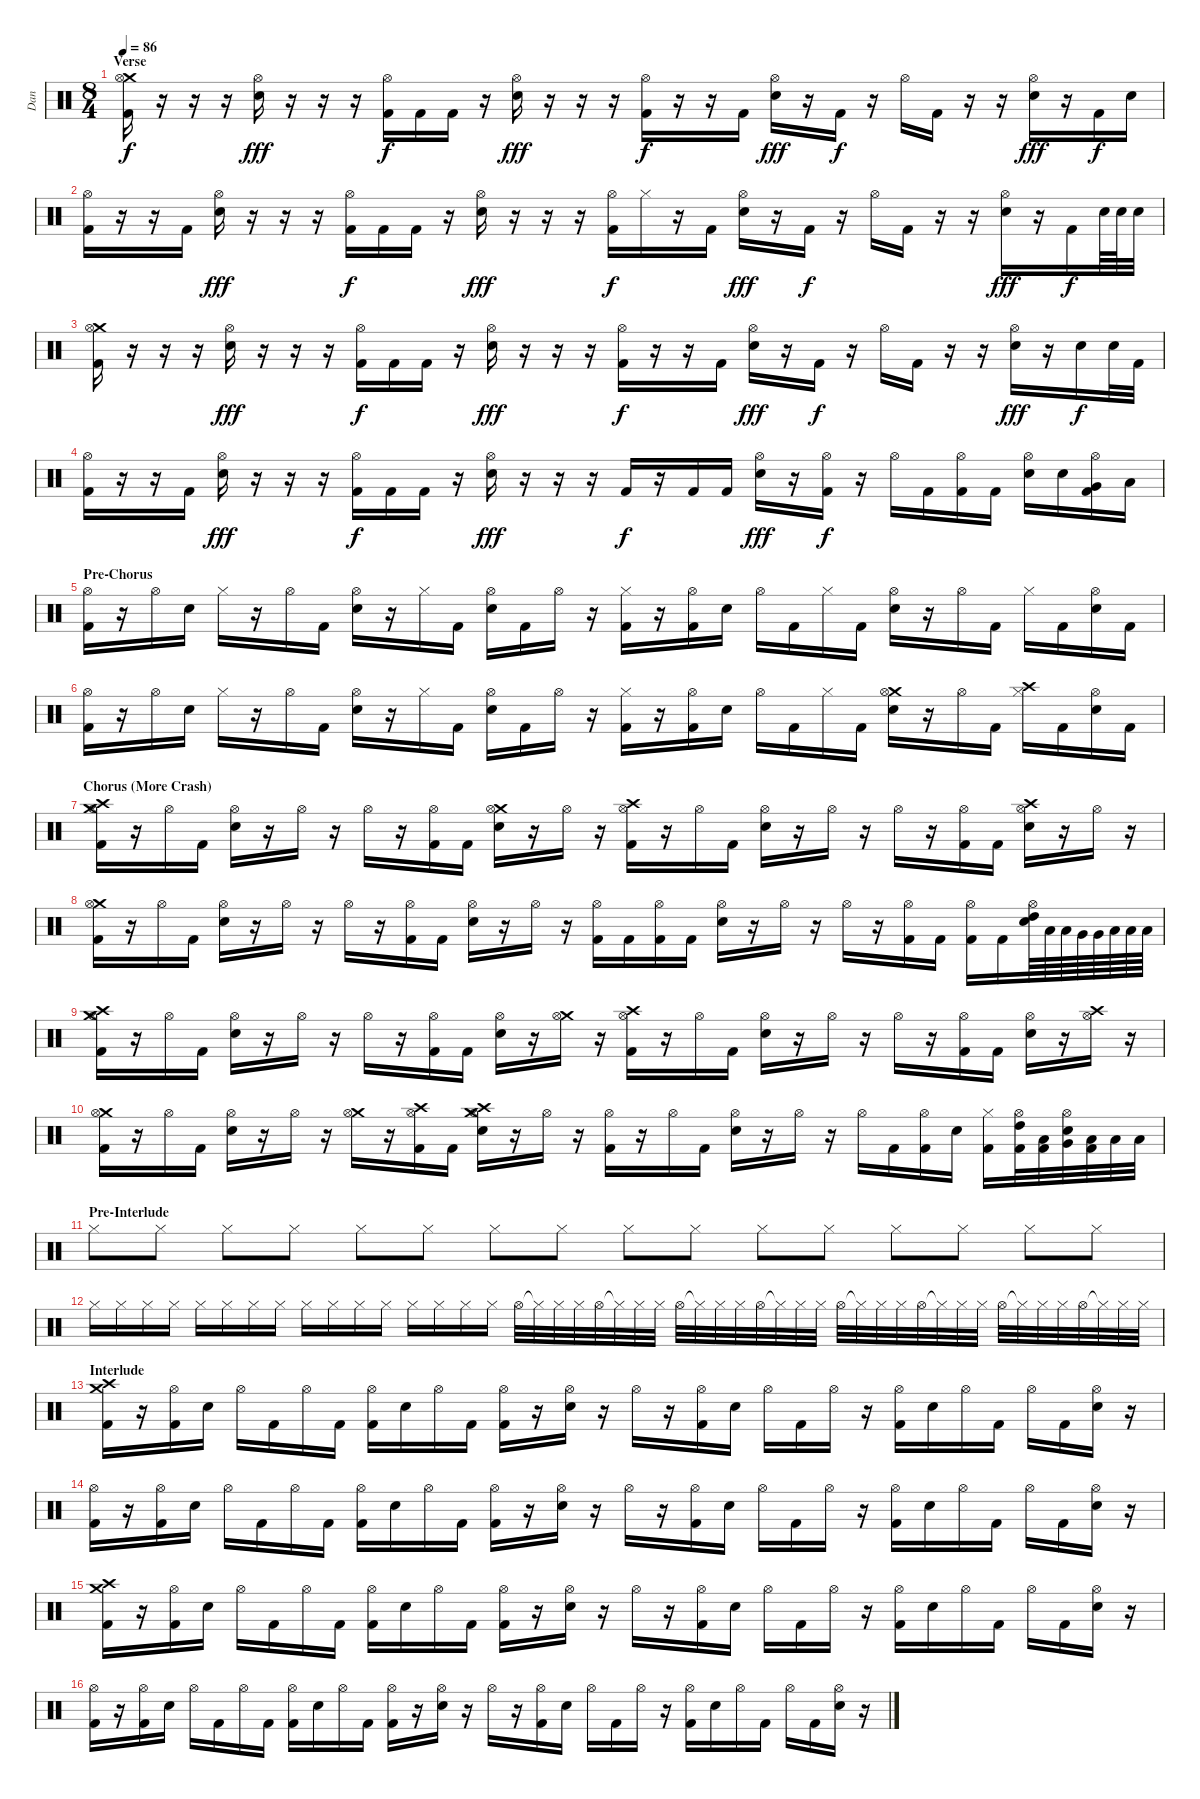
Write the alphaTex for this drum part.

\track ("Dan" "Dan") {instrument percussion}
\staff {score}
\articulation defaults
\ts (8 4)
\section ("" "Verse")
\tempo 86
\clef neutral
\ks c
("Crash medium (hit)" "Hi-Hat (open)" "Kick (hit) 2").16{dy f} r.16 r.16 r.16 ("Hi-Hat (open)" "Electric Snare (hit)").16{dy fff} r.16 r.16 r.16 ("Hi-Hat (open)" "Kick (hit) 2").16{dy f} "Kick (hit) 2".16 "Kick (hit) 2".16 r.16 ("Hi-Hat (open)" "Electric Snare (hit)").16{dy fff} r.16 r.16 r.16 ("Hi-Hat (open)" "Kick (hit) 2").16{dy f} r.16 r.16 "Kick (hit) 2".16 ("Hi-Hat (open)" "Electric Snare (hit)").16{dy fff} r.16 "Kick (hit) 2".16{dy f} r.16 "Hi-Hat (open)".16 "Kick (hit) 2".16 r.16 r.16 ("Hi-Hat (open)" "Electric Snare (hit)").16{dy fff} r.16 "Kick (hit) 2".16{dy f} "Electric Snare (hit)".16 |
("Hi-Hat (open)" "Kick (hit) 2").16 r.16 r.16 "Kick (hit) 2".16 ("Hi-Hat (open)" "Electric Snare (hit)").16{dy fff} r.16 r.16 r.16 ("Hi-Hat (open)" "Kick (hit) 2").16{dy f} "Kick (hit) 2".16 "Kick (hit) 2".16 r.16 ("Hi-Hat (open)" "Electric Snare (hit)").16{dy fff} r.16 r.16 r.16 ("Hi-Hat (open)" "Kick (hit) 2").16{dy f} "Hi-Hat (closed)".16 r.16 "Kick (hit) 2".16 ("Hi-Hat (open)" "Electric Snare (hit)").16{dy fff} r.16 "Kick (hit) 2".16{dy f} r.16 "Hi-Hat (open)".16 "Kick (hit) 2".16 r.16 r.16 ("Hi-Hat (open)" "Electric Snare (hit)").16{dy fff} r.16 "Kick (hit) 2".16{dy f} "Electric Snare (hit)".64 "Electric Snare (hit)".64 "Electric Snare (hit)".32 |
("Crash medium (hit)" "Hi-Hat (open)" "Kick (hit) 2").16 r.16 r.16 r.16 ("Hi-Hat (open)" "Electric Snare (hit)").16{dy fff} r.16 r.16 r.16 ("Hi-Hat (open)" "Kick (hit) 2").16{dy f} "Kick (hit) 2".16 "Kick (hit) 2".16 r.16 ("Hi-Hat (open)" "Electric Snare (hit)").16{dy fff} r.16 r.16 r.16 ("Hi-Hat (open)" "Kick (hit) 2").16{dy f} r.16 r.16 "Kick (hit) 2".16 ("Hi-Hat (open)" "Electric Snare (hit)").16{dy fff} r.16 "Kick (hit) 2".16{dy f} r.16 "Hi-Hat (open)".16 "Kick (hit) 2".16 r.16 r.16 ("Hi-Hat (open)" "Electric Snare (hit)").16{dy fff} r.16 "Electric Snare (hit)".16{dy f} "Electric Snare (hit)".32 "Kick (hit) 2".32 |
("Hi-Hat (open)" "Kick (hit) 2").16 r.16 r.16 "Kick (hit) 2".16 ("Hi-Hat (open)" "Electric Snare (hit)").16{dy fff} r.16 r.16 r.16 ("Hi-Hat (open)" "Kick (hit) 2").16{dy f} "Kick (hit) 2".16 "Kick (hit) 2".16 r.16 ("Hi-Hat (open)" "Electric Snare (hit)").16{dy fff} r.16 r.16 r.16 "Kick (hit) 2".16{dy f} r.16 "Kick (hit) 2".16 "Kick (hit) 2".16 ("Hi-Hat (open)" "Electric Snare (hit)").16{dy fff} r.16 ("Hi-Hat (open)" "Kick (hit) 2").16{dy f} r.16 "Hi-Hat (open)".16 "Kick (hit) 2".16 ("Hi-Hat (open)" "Kick (hit) 2").16 "Kick (hit) 2".16 ("Hi-Hat (open)" "Electric Snare (hit)").16 "Electric Snare (hit)".16 ("Hi-Hat (open)" "Very Low Tom (hit)" "Kick (hit) 2").16 "Low Tom (hit)".16 |
\section ("" "Pre-Chorus")
("Hi-Hat (open)" "Kick (hit) 2").16 r.16 "Hi-Hat (open)".16 "Electric Snare (hit)".16 "Hi-Hat (closed)".16 r.16 "Hi-Hat (open)".16 "Kick (hit) 2".16 ("Hi-Hat (open)" "Electric Snare (hit)").16 r.16 "Hi-Hat (closed)".16 "Kick (hit) 2".16 ("Hi-Hat (open)" "Electric Snare (hit)").16 "Kick (hit) 2".16 "Hi-Hat (open)".16 r.16 ("Hi-Hat (closed)" "Kick (hit) 2").16 r.16 ("Hi-Hat (open)" "Kick (hit) 2").16 "Electric Snare (hit)".16 "Hi-Hat (open)".16 "Kick (hit) 2".16 "Hi-Hat (closed)".16 "Kick (hit) 2".16 ("Hi-Hat (open)" "Electric Snare (hit)").16 r.16 "Hi-Hat (open)".16 "Kick (hit) 2".16 "Hi-Hat (closed)".16 "Kick (hit) 2".16 ("Hi-Hat (open)" "Electric Snare (hit)").16 "Kick (hit) 2".16 |
("Hi-Hat (open)" "Kick (hit) 2").16 r.16 "Hi-Hat (open)".16 "Electric Snare (hit)".16 "Hi-Hat (closed)".16 r.16 "Hi-Hat (open)".16 "Kick (hit) 2".16 ("Hi-Hat (open)" "Electric Snare (hit)").16 r.16 "Hi-Hat (closed)".16 "Kick (hit) 2".16 ("Hi-Hat (open)" "Electric Snare (hit)").16 "Kick (hit) 2".16 "Hi-Hat (open)".16 r.16 ("Hi-Hat (closed)" "Kick (hit) 2").16 r.16 ("Hi-Hat (open)" "Kick (hit) 2").16 "Electric Snare (hit)".16 "Hi-Hat (open)".16 "Kick (hit) 2".16 "Hi-Hat (closed)".16 "Kick (hit) 2".16 ("Crash medium (hit)" "Hi-Hat (open)" "Electric Snare (hit)").16 r.16 "Hi-Hat (open)".16 "Kick (hit) 2".16 ("Crash high (hit)" "Hi-Hat (closed)").16 "Kick (hit) 2".16 ("Hi-Hat (open)" "Electric Snare (hit)").16 "Kick (hit) 2".16 |
\section ("" "Chorus (More Crash)")
("Crash medium (hit)" "Crash high (hit)" "Hi-Hat (open)" "Kick (hit) 2").16 r.16 "Hi-Hat (open)".16 "Kick (hit) 2".16 ("Hi-Hat (open)" "Electric Snare (hit)").16 r.16 "Hi-Hat (open)".16 r.16 "Hi-Hat (open)".16 r.16 ("Hi-Hat (open)" "Kick (hit) 2").16 "Kick (hit) 2".16 ("Crash medium (hit)" "Hi-Hat (open)" "Electric Snare (hit)").16 r.16 "Hi-Hat (open)".16 r.16 ("Crash high (hit)" "Hi-Hat (open)" "Kick (hit) 2").16 r.16 "Hi-Hat (open)".16 "Kick (hit) 2".16 ("Hi-Hat (open)" "Electric Snare (hit)").16 r.16 "Hi-Hat (open)".16 r.16 "Hi-Hat (open)".16 r.16 ("Hi-Hat (open)" "Kick (hit) 2").16 "Kick (hit) 2".16 ("Crash high (hit)" "Hi-Hat (open)" "Electric Snare (hit)").16 r.16 "Hi-Hat (open)".16 r.16 |
("Crash medium (hit)" "Hi-Hat (open)" "Kick (hit) 2").16 r.16 "Hi-Hat (open)".16 "Kick (hit) 2".16 ("Hi-Hat (open)" "Electric Snare (hit)").16 r.16 "Hi-Hat (open)".16 r.16 "Hi-Hat (open)".16 r.16 ("Hi-Hat (open)" "Kick (hit) 2").16 "Kick (hit) 2".16 ("Hi-Hat (open)" "Electric Snare (hit)").16 r.16 "Hi-Hat (open)".16 r.16 ("Hi-Hat (open)" "Kick (hit) 2").16 "Kick (hit) 2".16 ("Hi-Hat (open)" "Kick (hit) 2").16 "Kick (hit) 2".16 ("Hi-Hat (open)" "Electric Snare (hit)").16 r.16 "Hi-Hat (open)".16 r.16 "Hi-Hat (open)".16 r.16 ("Hi-Hat (open)" "Kick (hit) 2").16 "Kick (hit) 2".16 ("Hi-Hat (open)" "Kick (hit) 2").16 "Kick (hit) 2".16 ("High Tom (hit)" "Hi-Hat (open)" "Electric Snare (hit)").64 "Low Tom (hit)".64 "Low Tom (hit)".64 "Very Low Tom (hit)".64 "Very Low Tom (hit)".64 "Low Floor Tom (hit)".64 "Low Floor Tom (hit)".64 "Low Floor Tom (hit)".64 |
("Crash medium (hit)" "Crash high (hit)" "Hi-Hat (open)" "Kick (hit) 2").16 r.16 "Hi-Hat (open)".16 "Kick (hit) 2".16 ("Hi-Hat (open)" "Electric Snare (hit)").16 r.16 "Hi-Hat (open)".16 r.16 "Hi-Hat (open)".16 r.16 ("Hi-Hat (open)" "Kick (hit) 2").16 "Kick (hit) 2".16 ("Hi-Hat (open)" "Electric Snare (hit)").16 r.16 ("Crash medium (hit)" "Hi-Hat (open)").16 r.16 ("Crash high (hit)" "Hi-Hat (open)" "Kick (hit) 2").16 r.16 "Hi-Hat (open)".16 "Kick (hit) 2".16 ("Hi-Hat (open)" "Electric Snare (hit)").16 r.16 "Hi-Hat (open)".16 r.16 "Hi-Hat (open)".16 r.16 ("Hi-Hat (open)" "Kick (hit) 2").16 "Kick (hit) 2".16 ("Hi-Hat (open)" "Electric Snare (hit)").16 r.16 ("Crash high (hit)" "Hi-Hat (open)").16 r.16 |
("Crash medium (hit)" "Hi-Hat (open)" "Kick (hit) 2").16 r.16 "Hi-Hat (open)".16 "Kick (hit) 2".16 ("Hi-Hat (open)" "Electric Snare (hit)").16 r.16 "Hi-Hat (open)".16 r.16 ("Crash medium (hit)" "Hi-Hat (open)").16 r.16 ("Crash high (hit)" "Hi-Hat (open)" "Kick (hit) 2").16 "Kick (hit) 2".16 ("Crash high (hit)" "Crash medium (hit)" "Hi-Hat (open)" "Electric Snare (hit)").16 r.16 "Hi-Hat (open)".16 r.16 ("Hi-Hat (open)" "Kick (hit) 2").16 r.16 "Hi-Hat (open)".16 "Kick (hit) 2".16 ("Hi-Hat (open)" "Electric Snare (hit)").16 r.16 "Hi-Hat (open)".16 r.16 "Hi-Hat (open)".16 "Kick (hit) 2".16 ("Hi-Hat (open)" "Kick (hit) 2").16 "Snare (hit)".16 ("Hi-Hat (closed)" "Kick (hit) 2").16 ("High Tom (hit)" "Hi-Hat (open)" "Kick (hit) 2").32 ("Low Tom (hit)" "Kick (hit) 2").32 ("Very Low Tom (hit)" "Hi-Hat (open)" "Electric Snare (hit)").32 ("Low Floor Tom (hit)" "Kick (hit) 2").32 "Low Floor Tom (hit)".32 "Low Floor Tom (hit)".32 |
\section ("" "Pre-Interlude")
"Hi-Hat (closed)".8 "Hi-Hat (closed)".8 "Hi-Hat (closed)".8 "Hi-Hat (closed)".8 "Hi-Hat (closed)".8 "Hi-Hat (closed)".8 "Hi-Hat (closed)".8 "Hi-Hat (closed)".8 "Hi-Hat (closed)".8 "Hi-Hat (closed)".8 "Hi-Hat (closed)".8 "Hi-Hat (closed)".8 "Hi-Hat (closed)".8 "Hi-Hat (closed)".8 "Hi-Hat (closed)".8 "Hi-Hat (closed)".8 |
"Hi-Hat (closed)".16 "Hi-Hat (closed)".16 "Hi-Hat (closed)".16 "Hi-Hat (closed)".16 "Hi-Hat (closed)".16 "Hi-Hat (closed)".16 "Hi-Hat (closed)".16 "Hi-Hat (closed)".16 "Hi-Hat (closed)".16 "Hi-Hat (closed)".16 "Hi-Hat (closed)".16 "Hi-Hat (closed)".16 "Hi-Hat (closed)".16 "Hi-Hat (closed)".16 "Hi-Hat (closed)".16 "Hi-Hat (closed)".16 "Hi-Hat (open)".32 "Hi-Hat (closed)"{t}.32 "Hi-Hat (closed)".32 "Hi-Hat (closed)".32 "Hi-Hat (open)".32 "Hi-Hat (closed)"{t}.32 "Hi-Hat (closed)".32 "Hi-Hat (closed)".32 "Hi-Hat (open)".32 "Hi-Hat (closed)"{t}.32 "Hi-Hat (closed)".32 "Hi-Hat (closed)".32 "Hi-Hat (open)".32 "Hi-Hat (closed)"{t}.32 "Hi-Hat (closed)".32 "Hi-Hat (closed)".32 "Hi-Hat (open)".32 "Hi-Hat (closed)"{t}.32 "Hi-Hat (closed)".32 "Hi-Hat (closed)".32 "Hi-Hat (open)".32 "Hi-Hat (closed)"{t}.32 "Hi-Hat (closed)".32 "Hi-Hat (closed)".32 "Hi-Hat (open)".32 "Hi-Hat (closed)"{t}.32 "Hi-Hat (closed)".32 "Hi-Hat (closed)".32 "Hi-Hat (open)".32 "Hi-Hat (closed)"{t}.32 "Hi-Hat (closed)".32 "Hi-Hat (closed)".32 |
\section ("" "Interlude")
("Crash medium (hit)" "Crash high (hit)" "Kick (hit) 2").16 r.16 ("Hi-Hat (open)" "Kick (hit) 2").16 "Electric Snare (hit)".16 "Hi-Hat (open)".16 "Kick (hit) 2".16 "Hi-Hat (open)".16 "Kick (hit) 2".16 ("Hi-Hat (open)" "Kick (hit) 2").16 "Electric Snare (hit)".16 "Hi-Hat (open)".16 "Kick (hit) 2".16 ("Hi-Hat (open)" "Kick (hit) 2").16 r.16 ("Hi-Hat (open)" "Electric Snare (hit)").16 r.16 "Hi-Hat (open)".16 r.16 ("Hi-Hat (open)" "Kick (hit) 2").16 "Electric Snare (hit)".16 "Hi-Hat (open)".16 "Kick (hit) 2".16 "Hi-Hat (open)".16 r.16 ("Hi-Hat (open)" "Kick (hit) 2").16 "Electric Snare (hit)".16 "Hi-Hat (open)".16 "Kick (hit) 2".16 "Hi-Hat (open)".16 "Kick (hit) 2".16 ("Hi-Hat (open)" "Electric Snare (hit)").16 r.16 |
("Hi-Hat (open)" "Kick (hit) 2").16 r.16 ("Hi-Hat (open)" "Kick (hit) 2").16 "Electric Snare (hit)".16 "Hi-Hat (open)".16 "Kick (hit) 2".16 "Hi-Hat (open)".16 "Kick (hit) 2".16 ("Hi-Hat (open)" "Kick (hit) 2").16 "Electric Snare (hit)".16 "Hi-Hat (open)".16 "Kick (hit) 2".16 ("Hi-Hat (open)" "Kick (hit) 2").16 r.16 ("Hi-Hat (open)" "Electric Snare (hit)").16 r.16 "Hi-Hat (open)".16 r.16 ("Hi-Hat (open)" "Kick (hit) 2").16 "Electric Snare (hit)".16 "Hi-Hat (open)".16 "Kick (hit) 2".16 "Hi-Hat (open)".16 r.16 ("Hi-Hat (open)" "Kick (hit) 2").16 "Electric Snare (hit)".16 "Hi-Hat (open)".16 "Kick (hit) 2".16 "Hi-Hat (open)".16 "Kick (hit) 2".16 ("Hi-Hat (open)" "Electric Snare (hit)").16 r.16 |
("Crash medium (hit)" "Crash high (hit)" "Kick (hit) 2").16 r.16 ("Hi-Hat (open)" "Kick (hit) 2").16 "Electric Snare (hit)".16 "Hi-Hat (open)".16 "Kick (hit) 2".16 "Hi-Hat (open)".16 "Kick (hit) 2".16 ("Hi-Hat (open)" "Kick (hit) 2").16 "Electric Snare (hit)".16 "Hi-Hat (open)".16 "Kick (hit) 2".16 ("Hi-Hat (open)" "Kick (hit) 2").16 r.16 ("Hi-Hat (open)" "Electric Snare (hit)").16 r.16 "Hi-Hat (open)".16 r.16 ("Hi-Hat (open)" "Kick (hit) 2").16 "Electric Snare (hit)".16 "Hi-Hat (open)".16 "Kick (hit) 2".16 "Hi-Hat (open)".16 r.16 ("Hi-Hat (open)" "Kick (hit) 2").16 "Electric Snare (hit)".16 "Hi-Hat (open)".16 "Kick (hit) 2".16 "Hi-Hat (open)".16 "Kick (hit) 2".16 ("Hi-Hat (open)" "Electric Snare (hit)").16 r.16 |
("Hi-Hat (open)" "Kick (hit) 2").16 r.16 ("Hi-Hat (open)" "Kick (hit) 2").16 "Electric Snare (hit)".16 "Hi-Hat (open)".16 "Kick (hit) 2".16 "Hi-Hat (open)".16 "Kick (hit) 2".16 ("Hi-Hat (open)" "Kick (hit) 2").16 "Electric Snare (hit)".16 "Hi-Hat (open)".16 "Kick (hit) 2".16 ("Hi-Hat (open)" "Kick (hit) 2").16 r.16 ("Hi-Hat (open)" "Electric Snare (hit)").16 r.16 "Hi-Hat (open)".16 r.16 ("Hi-Hat (open)" "Kick (hit) 2").16 "Electric Snare (hit)".16 "Hi-Hat (open)".16 "Kick (hit) 2".16 "Hi-Hat (open)".16 r.16 ("Hi-Hat (open)" "Kick (hit) 2").16 "Electric Snare (hit)".16 "Hi-Hat (open)".16 "Kick (hit) 2".16 "Hi-Hat (open)".16 "Kick (hit) 2".16 ("Hi-Hat (open)" "Electric Snare (hit)").16 r.16
